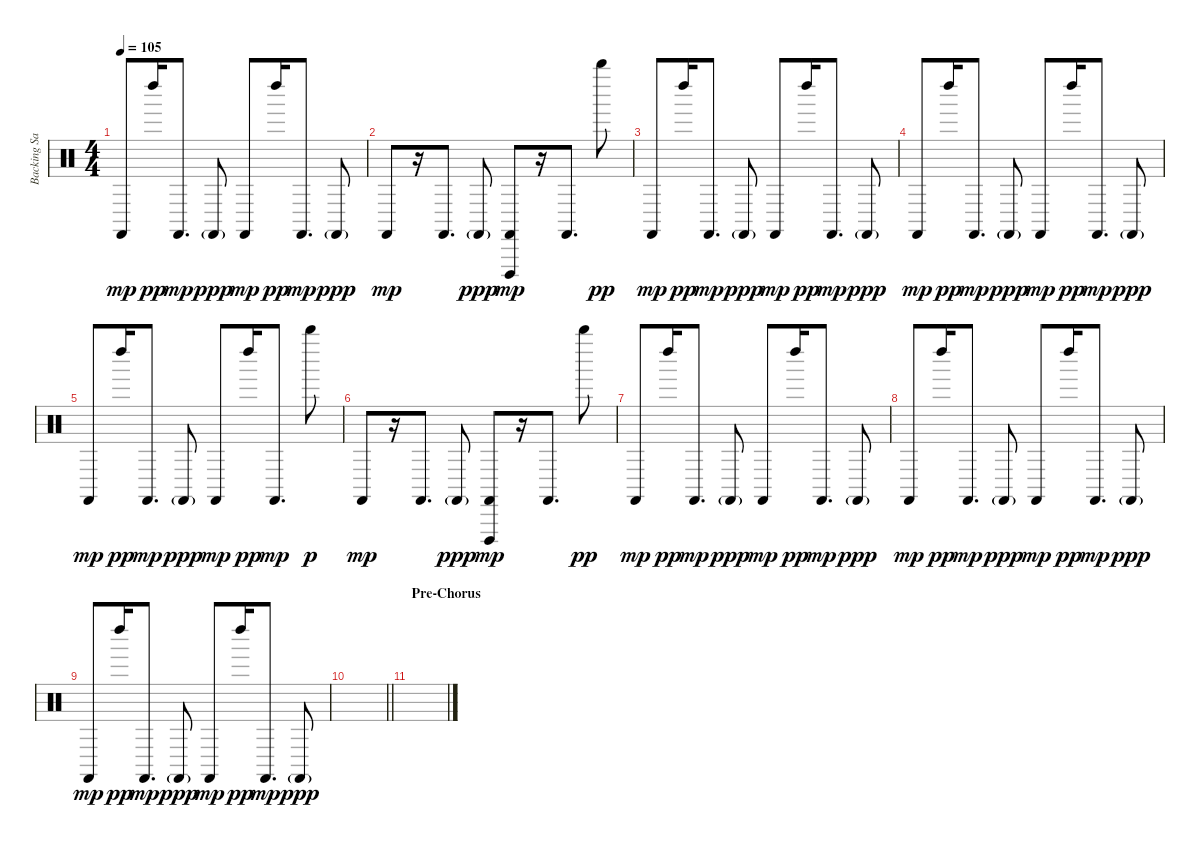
\track ("Backing Samples " "Backing Sa") {instrument percussion}
\staff {score}
\articulation defaults
\ts (4 4)
\tempo 105
\clef neutral
\ks c "Castanets (hit)".8{dy mp} "Left Maraca (hit)".16{dy pp} "Castanets (hit)".8{d dy mp} "Castanets (hit)"{g}.8{dy ppp} "Castanets (hit)".8{dy mp} "Left Maraca (hit)".16{dy pp} "Castanets (hit)".8{d dy mp} "Castanets (hit)"{g}.8{dy ppp}
|
"Castanets (hit)".8{dy mp} r.16 "Castanets (hit)".8{d} "Castanets (hit)"{g}.8{dy ppp} ("Cuica (open)" "Castanets (hit)").8{dy mp} r.16 "Castanets (hit)".8{d} "Whistle high (hit)".8{dy pp} |
"Castanets (hit)".8{dy mp} "Left Maraca (hit)".16{dy pp} "Castanets (hit)".8{d dy mp} "Castanets (hit)"{g}.8{dy ppp} "Castanets (hit)".8{dy mp} "Left Maraca (hit)".16{dy pp} "Castanets (hit)".8{d dy mp} "Castanets (hit)"{g}.8{dy ppp} |
"Castanets (hit)".8{dy mp} "Left Maraca (hit)".16{dy pp} "Castanets (hit)".8{d dy mp} "Castanets (hit)"{g}.8{dy ppp} "Castanets (hit)".8{dy mp} "Left Maraca (hit)".16{dy pp} "Castanets (hit)".8{d dy mp} "Castanets (hit)"{g}.8{dy ppp} |
"Castanets (hit)".8{dy mp} "Left Maraca (hit)".16{dy pp} "Castanets (hit)".8{d dy mp} "Castanets (hit)"{g}.8{dy ppp} "Castanets (hit)".8{dy mp} "Left Maraca (hit)".16{dy pp} "Castanets (hit)".8{d dy mp} "Whistle high (hit)".8{dy p} |
"Castanets (hit)".8{dy mp} r.16 "Castanets (hit)".8{d} "Castanets (hit)"{g}.8{dy ppp} ("Cuica (open)" "Castanets (hit)").8{dy mp} r.16 "Castanets (hit)".8{d} "Whistle high (hit)".8{dy pp} |
"Castanets (hit)".8{dy mp} "Left Maraca (hit)".16{dy pp} "Castanets (hit)".8{d dy mp} "Castanets (hit)"{g}.8{dy ppp} "Castanets (hit)".8{dy mp} "Left Maraca (hit)".16{dy pp} "Castanets (hit)".8{d dy mp} "Castanets (hit)"{g}.8{dy ppp} |
"Castanets (hit)".8{dy mp} "Left Maraca (hit)".16{dy pp} "Castanets (hit)".8{d dy mp} "Castanets (hit)"{g}.8{dy ppp} "Castanets (hit)".8{dy mp} "Left Maraca (hit)".16{dy pp} "Castanets (hit)".8{d dy mp} "Castanets (hit)"{g}.8{dy ppp} |
"Castanets (hit)".8{dy mp} "Left Maraca (hit)".16{dy pp} "Castanets (hit)".8{d dy mp} "Castanets (hit)"{g}.8{dy ppp} "Castanets (hit)".8{dy mp} "Left Maraca (hit)".16{dy pp} "Castanets (hit)".8{d dy mp} "Castanets (hit)"{g}.8{dy ppp} |
\barLineRight lightlight
|
\section ("" "Pre-Chorus")
